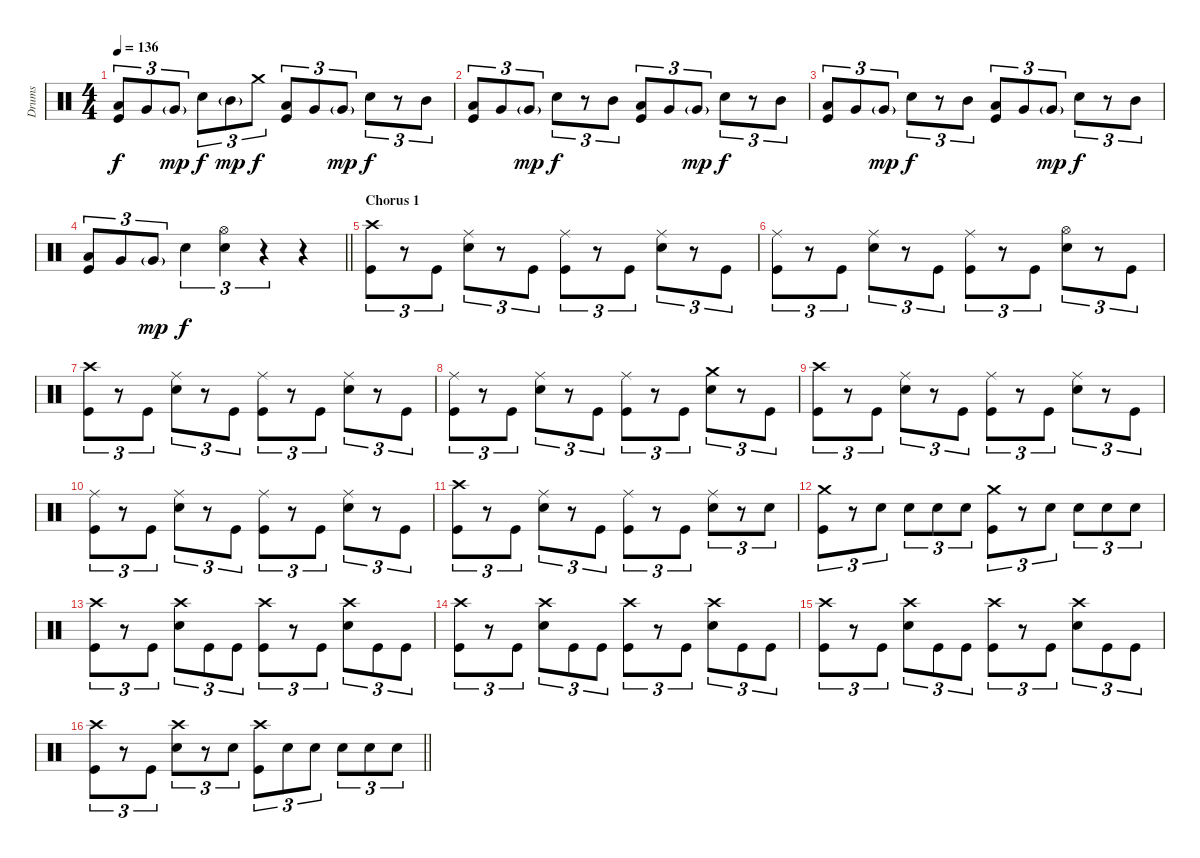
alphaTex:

\track ("Drums" "Drums") {instrument percussion}
\staff {score}
\articulation defaults
\ts (4 4)
\tempo 136
\clef neutral
\ks c
("Low Tom (hit)" "Kick (hit)").8{tu (3 2) dy f} "Very Low Tom (hit)".8{tu (3 2)} "Very Low Tom (hit)"{g}.8{tu (3 2) dy mp} "Electric Snare (hit)".8{tu (3 2) dy f} "Mid Tom (hit)"{g}.8{tu (3 2) dy mp} "Crash medium (hit)".8{tu (3 2) dy f} ("Low Tom (hit)" "Kick (hit)").8{tu (3 2)} "Very Low Tom (hit)".8{tu (3 2)} "Very Low Tom (hit)"{g}.8{tu (3 2) dy mp} "Electric Snare (hit)".8{tu (3 2) dy f} r.8{tu (3 2)} "Mid Tom (hit)".8{tu (3 2)} |
("Low Tom (hit)" "Kick (hit)").8{tu (3 2)} "Very Low Tom (hit)".8{tu (3 2)} "Very Low Tom (hit)"{g}.8{tu (3 2) dy mp} "Electric Snare (hit)".8{tu (3 2) dy f} r.8{tu (3 2)} "Mid Tom (hit)".8{tu (3 2)} ("Low Tom (hit)" "Kick (hit)").8{tu (3 2)} "Very Low Tom (hit)".8{tu (3 2)} "Very Low Tom (hit)"{g}.8{tu (3 2) dy mp} "Electric Snare (hit)".8{tu (3 2) dy f} r.8{tu (3 2)} "Mid Tom (hit)".8{tu (3 2)} |
("Low Tom (hit)" "Kick (hit)").8{tu (3 2)} "Very Low Tom (hit)".8{tu (3 2)} "Very Low Tom (hit)"{g}.8{tu (3 2) dy mp} "Electric Snare (hit)".8{tu (3 2) dy f} r.8{tu (3 2)} "Mid Tom (hit)".8{tu (3 2)} ("Low Tom (hit)" "Kick (hit)").8{tu (3 2)} "Very Low Tom (hit)".8{tu (3 2)} "Very Low Tom (hit)"{g}.8{tu (3 2) dy mp} "Electric Snare (hit)".8{tu (3 2) dy f} r.8{tu (3 2)} "Mid Tom (hit)".8{tu (3 2)} |
\barLineRight lightlight
("Low Tom (hit)" "Kick (hit)").8{tu (3 2)} "Very Low Tom (hit)".8{tu (3 2)} "Very Low Tom (hit)"{g}.8{tu (3 2) dy mp} "Electric Snare (hit)".4{tu (3 2) dy f} ("Hi-Hat (open)" "Electric Snare (hit)").4{tu (3 2)} r.4{tu (3 2)} r.4 |
\section ("" "Chorus 1")
("Crash high (hit)" "Kick (hit)").8{tu (3 2)} r.8{tu (3 2)} "Kick (hit)".8{tu (3 2)} ("Ride (middle)" "Electric Snare (hit)").8{tu (3 2)} r.8{tu (3 2)} "Kick (hit)".8{tu (3 2)} ("Ride (middle)" "Kick (hit)").8{tu (3 2)} r.8{tu (3 2)} "Kick (hit)".8{tu (3 2)} ("Ride (middle)" "Electric Snare (hit)").8{tu (3 2)} r.8{tu (3 2)} "Kick (hit)".8{tu (3 2)} |
("Ride (middle)" "Kick (hit)").8{tu (3 2)} r.8{tu (3 2)} "Kick (hit)".8{tu (3 2)} ("Ride (middle)" "Electric Snare (hit)").8{tu (3 2)} r.8{tu (3 2)} "Kick (hit)".8{tu (3 2)} ("Ride (middle)" "Kick (hit)").8{tu (3 2)} r.8{tu (3 2)} "Kick (hit)".8{tu (3 2)} ("Hi-Hat (open)" "Electric Snare (hit)").8{tu (3 2)} r.8{tu (3 2)} "Kick (hit)".8{tu (3 2)} |
("Crash high (hit)" "Kick (hit)").8{tu (3 2)} r.8{tu (3 2)} "Kick (hit)".8{tu (3 2)} ("Ride (middle)" "Electric Snare (hit)").8{tu (3 2)} r.8{tu (3 2)} "Kick (hit)".8{tu (3 2)} ("Ride (middle)" "Kick (hit)").8{tu (3 2)} r.8{tu (3 2)} "Kick (hit)".8{tu (3 2)} ("Ride (middle)" "Electric Snare (hit)").8{tu (3 2)} r.8{tu (3 2)} "Kick (hit)".8{tu (3 2)} |
("Ride (middle)" "Kick (hit)").8{tu (3 2)} r.8{tu (3 2)} "Kick (hit)".8{tu (3 2)} ("Ride (middle)" "Electric Snare (hit)").8{tu (3 2)} r.8{tu (3 2)} "Kick (hit)".8{tu (3 2)} ("Ride (middle)" "Kick (hit)").8{tu (3 2)} r.8{tu (3 2)} "Kick (hit)".8{tu (3 2)} ("Crash medium (hit)" "Electric Snare (hit)").8{tu (3 2)} r.8{tu (3 2)} "Kick (hit)".8{tu (3 2)} |
("Crash high (hit)" "Kick (hit)").8{tu (3 2)} r.8{tu (3 2)} "Kick (hit)".8{tu (3 2)} ("Ride (middle)" "Electric Snare (hit)").8{tu (3 2)} r.8{tu (3 2)} "Kick (hit)".8{tu (3 2)} ("Ride (middle)" "Kick (hit)").8{tu (3 2)} r.8{tu (3 2)} "Kick (hit)".8{tu (3 2)} ("Ride (middle)" "Electric Snare (hit)").8{tu (3 2)} r.8{tu (3 2)} "Kick (hit)".8{tu (3 2)} |
("Ride (middle)" "Kick (hit)").8{tu (3 2)} r.8{tu (3 2)} "Kick (hit)".8{tu (3 2)} ("Ride (middle)" "Electric Snare (hit)").8{tu (3 2)} r.8{tu (3 2)} "Kick (hit)".8{tu (3 2)} ("Ride (middle)" "Kick (hit)").8{tu (3 2)} r.8{tu (3 2)} "Kick (hit)".8{tu (3 2)} ("Ride (middle)" "Electric Snare (hit)").8{tu (3 2)} r.8{tu (3 2)} "Kick (hit)".8{tu (3 2)} |
("Crash high (hit)" "Kick (hit)").8{tu (3 2)} r.8{tu (3 2)} "Kick (hit)".8{tu (3 2)} ("Ride (middle)" "Electric Snare (hit)").8{tu (3 2)} r.8{tu (3 2)} "Kick (hit)".8{tu (3 2)} ("Ride (middle)" "Kick (hit)").8{tu (3 2)} r.8{tu (3 2)} "Kick (hit)".8{tu (3 2)} ("Ride (middle)" "Electric Snare (hit)").8{tu (3 2)} r.8{tu (3 2)} "Electric Snare (hit)".8{tu (3 2)} |
("Crash medium (hit)" "Kick (hit)").8{tu (3 2)} r.8{tu (3 2)} "Electric Snare (hit)".8{tu (3 2)} "Electric Snare (hit)".8{tu (3 2)} "Electric Snare (hit)".8{tu (3 2)} "Electric Snare (hit)".8{tu (3 2)} ("Crash medium (hit)" "Kick (hit)").8{tu (3 2)} r.8{tu (3 2)} "Electric Snare (hit)".8{tu (3 2)} "Electric Snare (hit)".8{tu (3 2)} "Electric Snare (hit)".8{tu (3 2)} "Electric Snare (hit)".8{tu (3 2)} |
("Crash high (hit)" "Kick (hit)").8{tu (3 2)} r.8{tu (3 2)} "Kick (hit)".8{tu (3 2)} ("Crash high (hit)" "Electric Snare (hit)").8{tu (3 2)} "Kick (hit)".8{tu (3 2)} "Kick (hit)".8{tu (3 2)} ("Crash high (hit)" "Kick (hit)").8{tu (3 2)} r.8{tu (3 2)} "Kick (hit)".8{tu (3 2)} ("Crash high (hit)" "Electric Snare (hit)").8{tu (3 2)} "Kick (hit)".8{tu (3 2)} "Kick (hit)".8{tu (3 2)} |
("Crash high (hit)" "Kick (hit)").8{tu (3 2)} r.8{tu (3 2)} "Kick (hit)".8{tu (3 2)} ("Crash high (hit)" "Electric Snare (hit)").8{tu (3 2)} "Kick (hit)".8{tu (3 2)} "Kick (hit)".8{tu (3 2)} ("Crash high (hit)" "Kick (hit)").8{tu (3 2)} r.8{tu (3 2)} "Kick (hit)".8{tu (3 2)} ("Crash high (hit)" "Electric Snare (hit)").8{tu (3 2)} "Kick (hit)".8{tu (3 2)} "Kick (hit)".8{tu (3 2)} |
("Crash high (hit)" "Kick (hit)").8{tu (3 2)} r.8{tu (3 2)} "Kick (hit)".8{tu (3 2)} ("Crash high (hit)" "Electric Snare (hit)").8{tu (3 2)} "Kick (hit)".8{tu (3 2)} "Kick (hit)".8{tu (3 2)} ("Crash high (hit)" "Kick (hit)").8{tu (3 2)} r.8{tu (3 2)} "Kick (hit)".8{tu (3 2)} ("Crash high (hit)" "Electric Snare (hit)").8{tu (3 2)} "Kick (hit)".8{tu (3 2)} "Kick (hit)".8{tu (3 2)} |
\barLineRight lightlight
("Crash high (hit)" "Kick (hit)").8{tu (3 2)} r.8{tu (3 2)} "Kick (hit)".8{tu (3 2)} ("Crash high (hit)" "Electric Snare (hit)").8{tu (3 2)} r.8{tu (3 2)} "Electric Snare (hit)".8{tu (3 2)} ("Crash high (hit)" "Kick (hit)").8{tu (3 2)} "Electric Snare (hit)".8{tu (3 2)} "Electric Snare (hit)".8{tu (3 2)} "Electric Snare (hit)".8{tu (3 2)} "Electric Snare (hit)".8{tu (3 2)} "Electric Snare (hit)".8{tu (3 2)}
